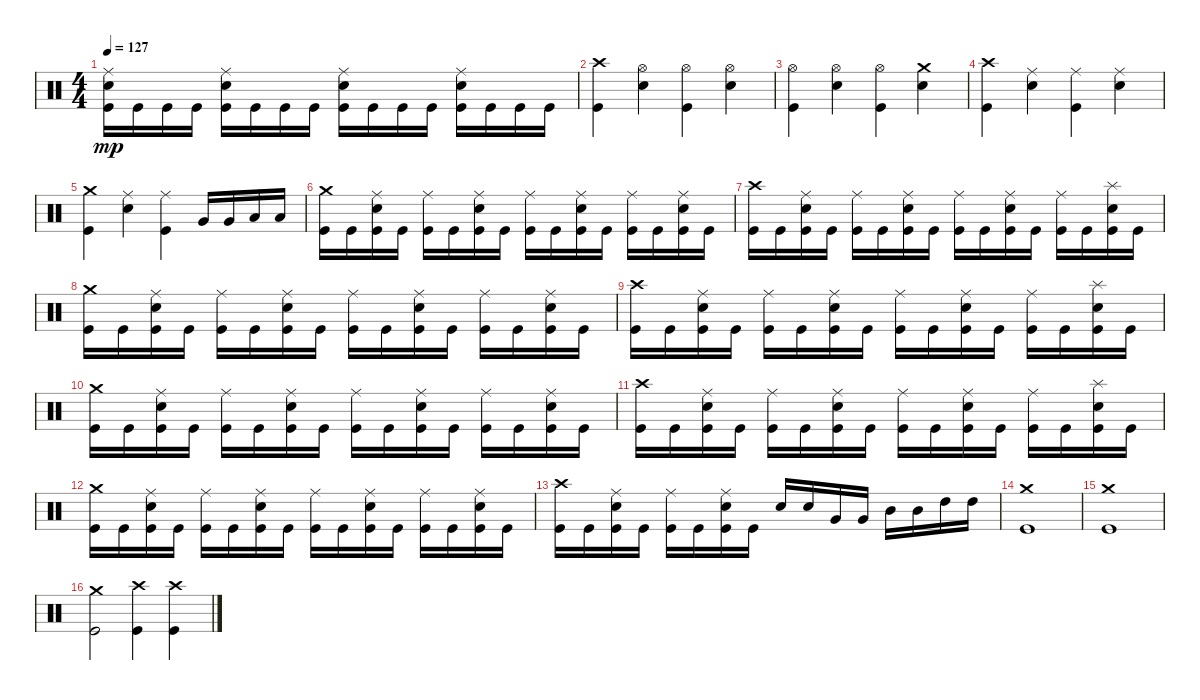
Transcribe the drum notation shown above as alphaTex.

\track "" {instrument percussion}
\staff {score}
\articulation defaults
\ts (4 4)
\tempo 127
\clef neutral
\ks c
("Kick (hit)" "Snare (hit) 2" "Ride (middle)").16{dy mp} "Kick (hit)".16 "Kick (hit)".16 "Kick (hit)".16 ("Kick (hit)" "Snare (hit) 2" "Ride (middle)").16 "Kick (hit)".16 "Kick (hit)".16 "Kick (hit)".16 ("Kick (hit)" "Snare (hit) 2" "Ride (middle)").16 "Kick (hit)".16 "Kick (hit)".16 "Kick (hit)".16 ("Kick (hit)" "Snare (hit) 2" "Ride (middle)").16 "Kick (hit)".16 "Kick (hit)".16 "Kick (hit)".16 |
("Kick (hit)" "Crash high (hit)").4 ("Hi-Hat (open)" "Snare (hit) 2").4 ("Hi-Hat (open)" "Kick (hit)").4 ("Hi-Hat (open)" "Snare (hit) 2").4 |
("Hi-Hat (open)" "Kick (hit)").4 ("Hi-Hat (open)" "Snare (hit) 2").4 ("Hi-Hat (open)" "Kick (hit)").4 ("Snare (hit) 2" "Crash medium (hit)").4 |
("Crash high (hit)" "Kick (hit)").4 ("Snare (hit) 2" "Ride (middle)").4 ("Kick (hit)" "Ride (middle)").4 ("Snare (hit) 2" "Ride (middle)").4 |
("Crash medium (hit)" "Kick (hit)").4 ("Snare (hit) 2" "Ride (middle)").4 ("Kick (hit)" "Ride (middle)").4 "Very Low Tom (hit)".16 "Very Low Tom (hit)".16 "Low Tom (hit)".16 "Low Tom (hit)".16 |
("Kick (hit)" "Crash medium (hit)").16 "Kick (hit)".16 ("Kick (hit)" "Snare (hit) 2" "Ride (middle)").16 "Kick (hit)".16 ("Kick (hit)" "Ride (middle)").16 "Kick (hit)".16 ("Kick (hit)" "Snare (hit) 2" "Ride (middle)").16 "Kick (hit)".16 ("Kick (hit)" "Ride (middle)").16 "Kick (hit)".16 ("Kick (hit)" "Snare (hit) 2" "Ride (middle)").16 "Kick (hit)".16 ("Kick (hit)" "Ride (middle)").16 "Kick (hit)".16 ("Kick (hit)" "Snare (hit) 2" "Ride (middle)").16 "Kick (hit)".16 |
("Crash high (hit)" "Kick (hit)").16 "Kick (hit)".16 ("Kick (hit)" "Ride (middle)" "Snare (hit) 2").16 "Kick (hit)".16 ("Kick (hit)" "Ride (middle)").16 "Kick (hit)".16 ("Kick (hit)" "Ride (middle)" "Snare (hit) 2").16 "Kick (hit)".16 ("Kick (hit)" "Ride (middle)").16 "Kick (hit)".16 ("Kick (hit)" "Ride (middle)" "Snare (hit) 2").16 "Kick (hit)".16 ("Kick (hit)" "Ride (middle)").16 "Kick (hit)".16 ("Kick (hit)" "Splash (hit)" "Snare (hit) 2").16 "Kick (hit)".16 |
("Kick (hit)" "Crash medium (hit)").16 "Kick (hit)".16 ("Kick (hit)" "Snare (hit) 2" "Ride (middle)").16 "Kick (hit)".16 ("Kick (hit)" "Ride (middle)").16 "Kick (hit)".16 ("Kick (hit)" "Snare (hit) 2" "Ride (middle)").16 "Kick (hit)".16 ("Kick (hit)" "Ride (middle)").16 "Kick (hit)".16 ("Kick (hit)" "Snare (hit) 2" "Ride (middle)").16 "Kick (hit)".16 ("Kick (hit)" "Ride (middle)").16 "Kick (hit)".16 ("Kick (hit)" "Snare (hit) 2" "Ride (middle)").16 "Kick (hit)".16 |
("Crash high (hit)" "Kick (hit)").16 "Kick (hit)".16 ("Kick (hit)" "Ride (middle)" "Snare (hit) 2").16 "Kick (hit)".16 ("Kick (hit)" "Ride (middle)").16 "Kick (hit)".16 ("Kick (hit)" "Ride (middle)" "Snare (hit) 2").16 "Kick (hit)".16 ("Kick (hit)" "Ride (middle)").16 "Kick (hit)".16 ("Kick (hit)" "Ride (middle)" "Snare (hit) 2").16 "Kick (hit)".16 ("Kick (hit)" "Ride (middle)").16 "Kick (hit)".16 ("Kick (hit)" "Splash (hit)" "Snare (hit) 2").16 "Kick (hit)".16 |
("Kick (hit)" "Crash medium (hit)").16 "Kick (hit)".16 ("Kick (hit)" "Snare (hit) 2" "Ride (middle)").16 "Kick (hit)".16 ("Kick (hit)" "Ride (middle)").16 "Kick (hit)".16 ("Kick (hit)" "Snare (hit) 2" "Ride (middle)").16 "Kick (hit)".16 ("Kick (hit)" "Ride (middle)").16 "Kick (hit)".16 ("Kick (hit)" "Snare (hit) 2" "Ride (middle)").16 "Kick (hit)".16 ("Kick (hit)" "Ride (middle)").16 "Kick (hit)".16 ("Kick (hit)" "Snare (hit) 2" "Ride (middle)").16 "Kick (hit)".16 |
("Crash high (hit)" "Kick (hit)").16 "Kick (hit)".16 ("Kick (hit)" "Ride (middle)" "Snare (hit) 2").16 "Kick (hit)".16 ("Kick (hit)" "Ride (middle)").16 "Kick (hit)".16 ("Kick (hit)" "Ride (middle)" "Snare (hit) 2").16 "Kick (hit)".16 ("Kick (hit)" "Ride (middle)").16 "Kick (hit)".16 ("Kick (hit)" "Ride (middle)" "Snare (hit) 2").16 "Kick (hit)".16 ("Kick (hit)" "Ride (middle)").16 "Kick (hit)".16 ("Kick (hit)" "Splash (hit)" "Snare (hit) 2").16 "Kick (hit)".16 |
("Kick (hit)" "Crash medium (hit)").16 "Kick (hit)".16 ("Kick (hit)" "Snare (hit) 2" "Ride (middle)").16 "Kick (hit)".16 ("Kick (hit)" "Ride (middle)").16 "Kick (hit)".16 ("Kick (hit)" "Snare (hit) 2" "Ride (middle)").16 "Kick (hit)".16 ("Kick (hit)" "Ride (middle)").16 "Kick (hit)".16 ("Kick (hit)" "Snare (hit) 2" "Ride (middle)").16 "Kick (hit)".16 ("Kick (hit)" "Ride (middle)").16 "Kick (hit)".16 ("Kick (hit)" "Snare (hit) 2" "Ride (middle)").16 "Kick (hit)".16 |
("Crash high (hit)" "Kick (hit)").16 "Kick (hit)".16 ("Kick (hit)" "Ride (middle)" "Snare (hit) 2").16 "Kick (hit)".16 ("Kick (hit)" "Ride (middle)").16 "Kick (hit)".16 ("Kick (hit)" "Ride (middle)" "Snare (hit) 2").16 "Kick (hit)".16 "Snare (hit) 2".16 "Snare (hit) 2".16 "Very Low Tom (hit)".16 "Very Low Tom (hit)".16 "Mid Tom (hit)".16 "Mid Tom (hit)".16 "High Tom (hit)".16 "High Tom (hit)".16 |
("Kick (hit)" "Crash medium (hit)").1 |
("Kick (hit)" "Crash medium (hit)").1 |
("Kick (hit)" "Crash medium (hit)").2 ("Crash high (hit)" "Kick (hit)").4 ("Crash high (hit)" "Kick (hit)").4
